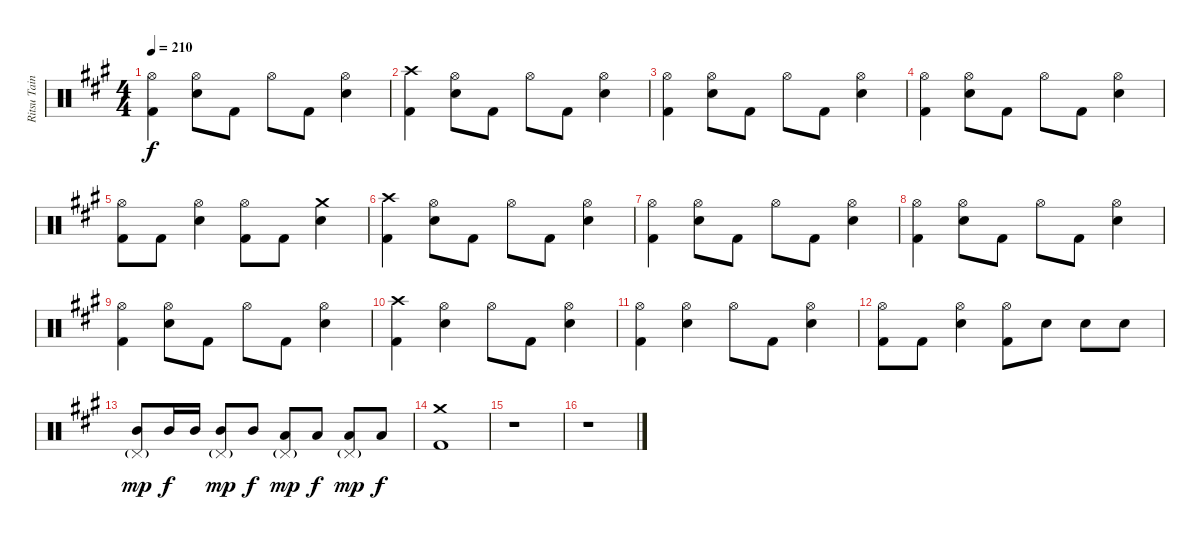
\track ("Ritsu Tainaka" "Ritsu Tain") {instrument percussion}
\staff {score}
\articulation defaults
\ts (4 4)
\tempo 210
\clef neutral
\ks a
("Hi-Hat (open)" "Kick (hit) 2").4{dy f} ("Hi-Hat (open)" "Electric Snare (hit)").8 "Kick (hit) 2".8 "Hi-Hat (open)".8 "Kick (hit) 2".8 ("Hi-Hat (open)" "Electric Snare (hit)").4 |
("Crash high (hit)" "Kick (hit) 2").4 ("Hi-Hat (open)" "Electric Snare (hit)").8 "Kick (hit) 2".8 "Hi-Hat (open)".8 "Kick (hit) 2".8 ("Hi-Hat (open)" "Electric Snare (hit)").4 |
("Hi-Hat (open)" "Kick (hit) 2").4 ("Hi-Hat (open)" "Electric Snare (hit)").8 "Kick (hit) 2".8 "Hi-Hat (open)".8 "Kick (hit) 2".8 ("Hi-Hat (open)" "Electric Snare (hit)").4 |
("Hi-Hat (open)" "Kick (hit) 2").4 ("Hi-Hat (open)" "Electric Snare (hit)").8 "Kick (hit) 2".8 "Hi-Hat (open)".8 "Kick (hit) 2".8 ("Hi-Hat (open)" "Electric Snare (hit)").4 |
("Hi-Hat (open)" "Kick (hit) 2").8 "Kick (hit) 2".8 ("Hi-Hat (open)" "Electric Snare (hit)").4 ("Hi-Hat (open)" "Kick (hit) 2").8 "Kick (hit) 2".8 ("Crash medium (hit)" "Electric Snare (hit)").4 |
("Crash high (hit)" "Kick (hit) 2").4 ("Hi-Hat (open)" "Electric Snare (hit)").8 "Kick (hit) 2".8 "Hi-Hat (open)".8 "Kick (hit) 2".8 ("Hi-Hat (open)" "Electric Snare (hit)").4 |
("Hi-Hat (open)" "Kick (hit) 2").4 ("Hi-Hat (open)" "Electric Snare (hit)").8 "Kick (hit) 2".8 "Hi-Hat (open)".8 "Kick (hit) 2".8 ("Hi-Hat (open)" "Electric Snare (hit)").4 |
("Hi-Hat (open)" "Kick (hit) 2").4 ("Hi-Hat (open)" "Electric Snare (hit)").8 "Kick (hit) 2".8 "Hi-Hat (open)".8 "Kick (hit) 2".8 ("Hi-Hat (open)" "Electric Snare (hit)").4 |
("Hi-Hat (open)" "Kick (hit) 2").4 ("Hi-Hat (open)" "Electric Snare (hit)").8 "Kick (hit) 2".8 "Hi-Hat (open)".8 "Kick (hit) 2".8 ("Hi-Hat (open)" "Electric Snare (hit)").4 |
("Crash high (hit)" "Kick (hit) 2").4 ("Hi-Hat (open)" "Electric Snare (hit)").4 "Hi-Hat (open)".8 "Kick (hit) 2".8 ("Hi-Hat (open)" "Electric Snare (hit)").4 |
("Hi-Hat (open)" "Kick (hit) 2").4 ("Hi-Hat (open)" "Electric Snare (hit)").4 "Hi-Hat (open)".8 "Kick (hit) 2".8 ("Hi-Hat (open)" "Electric Snare (hit)").4 |
("Hi-Hat (open)" "Kick (hit) 2").8 "Kick (hit) 2".8 ("Hi-Hat (open)" "Electric Snare (hit)").4 ("Hi-Hat (open)" "Kick (hit) 2").8 "Electric Snare (hit)".8 "Electric Snare (hit)".8 "Electric Snare (hit)".8 |
("Pedal Hi-Hat (hit)"{g} "Mid Tom (hit)").8{dy mp} "Mid Tom (hit)".16{dy f} "Mid Tom (hit)".16 ("Pedal Hi-Hat (hit)"{g} "Mid Tom (hit)").8{dy mp} "Mid Tom (hit)".8{dy f} ("Pedal Hi-Hat (hit)"{g} "Low Tom (hit)").8{dy mp} "Low Tom (hit)".8{dy f} ("Pedal Hi-Hat (hit)"{g} "Low Floor Tom (hit)").8{dy mp} "Low Floor Tom (hit)".8{dy f} |
("Crash medium (hit)" "Kick (hit) 2").1 |
r.1 |
r.1
